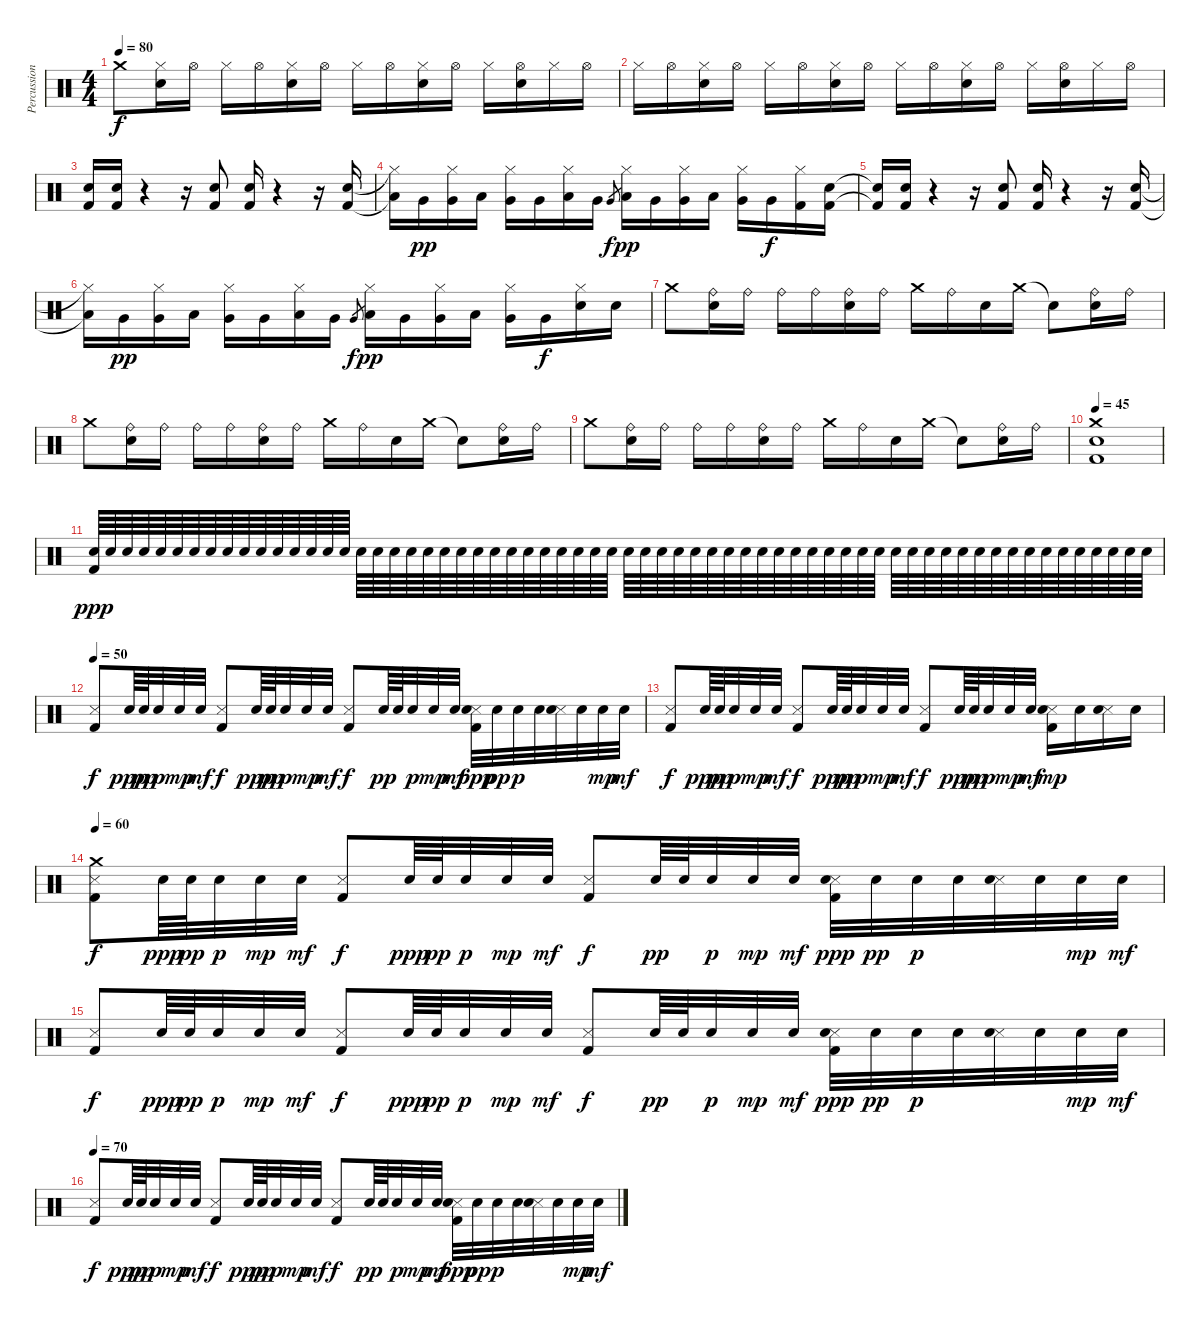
\track ("Percussions" "Percussion") {instrument percussion}
\staff {score}
\articulation defaults
\ts (4 4)
\tempo 80
\clef neutral
\ks c "Crash medium (hit)".8{dy f}
("Snare (hit) 2" "Hi-Hat (closed)").16 "Hi-Hat (open)".16 "Hi-Hat (closed)".16 "Hi-Hat (open)".16 ("Snare (hit) 2" "Hi-Hat (closed)").16 "Hi-Hat (open)".16 "Hi-Hat (closed)".16 "Hi-Hat (open)".16 ("Snare (hit) 2" "Hi-Hat (closed)").16 "Hi-Hat (open)".16 "Hi-Hat (closed)".16 ("Snare (hit) 2" "Hi-Hat (open)").16 "Hi-Hat (closed)".16 "Hi-Hat (open)".16 |
"Hi-Hat (closed)".16 "Hi-Hat (open)".16 ("Snare (hit) 2" "Hi-Hat (closed)").16 "Hi-Hat (open)".16 "Hi-Hat (closed)".16 "Hi-Hat (open)".16 ("Snare (hit) 2" "Hi-Hat (closed)").16 "Hi-Hat (open)".16 "Hi-Hat (closed)".16 "Hi-Hat (open)".16 ("Snare (hit) 2" "Hi-Hat (closed)").16 "Hi-Hat (open)".16 "Hi-Hat (closed)".16 ("Snare (hit) 2" "Hi-Hat (open)").16 "Hi-Hat (closed)".16 "Hi-Hat (open)".16 |
("Snare (hit) 2" "Kick (hit) 2").16 ("Snare (hit) 2" "Kick (hit) 2").16 r.4 r.16 ("Snare (hit) 2" "Kick (hit) 2").8 ("Kick (hit) 2" "Snare (hit) 2").16 r.4 r.16 ("Snare (hit) 2" "Kick (hit) 2").16 |
("Hi-Hat (closed)"{t} "Low Tom (hit)"{t}).16 "Very Low Tom (hit)".16{dy pp} ("Hi-Hat (closed)" "Very Low Tom (hit)").16 "Low Tom (hit)".16 ("Hi-Hat (closed)" "Very Low Tom (hit)").16 "Very Low Tom (hit)".16 ("Hi-Hat (closed)" "Low Tom (hit)").16 "Very Low Tom (hit)".16 "Very Low Tom (hit)".8{gr dy f} ("Hi-Hat (closed)" "Low Tom (hit)").16{dy pp} "Very Low Tom (hit)".16 ("Hi-Hat (closed)" "Very Low Tom (hit)").16 "Low Tom (hit)".16 ("Hi-Hat (closed)" "Very Low Tom (hit)").16 "Very Low Tom (hit)".16{dy f} ("Hi-Hat (closed)" "Kick (hit) 2").16 ("Snare (hit) 2" "Kick (hit) 2").16 |
("Snare (hit) 2"{t} "Kick (hit) 2"{t}).16 ("Snare (hit) 2" "Kick (hit) 2").16 r.4 r.16 ("Snare (hit) 2" "Kick (hit) 2").8 ("Kick (hit) 2" "Snare (hit) 2").16 r.4 r.16 ("Snare (hit) 2" "Kick (hit) 2").16 |
("Hi-Hat (closed)"{t} "Low Tom (hit)"{t}).16 "Very Low Tom (hit)".16{dy pp} ("Hi-Hat (closed)" "Very Low Tom (hit)").16 "Low Tom (hit)".16 ("Hi-Hat (closed)" "Very Low Tom (hit)").16 "Very Low Tom (hit)".16 ("Hi-Hat (closed)" "Low Tom (hit)").16 "Very Low Tom (hit)".16 "Very Low Tom (hit)".8{gr dy f} ("Hi-Hat (closed)" "Low Tom (hit)").16{dy pp} "Very Low Tom (hit)".16 ("Hi-Hat (closed)" "Very Low Tom (hit)").16 "Low Tom (hit)".16 ("Hi-Hat (closed)" "Very Low Tom (hit)").16 "Very Low Tom (hit)".16{dy f} ("Hi-Hat (closed)" "Snare (hit) 2").16 "Snare (hit) 2".16 |
"Crash medium (hit)".8 ("Snare (hit) 2" "Ride (bell)").16 "Ride (bell)".16 "Ride (bell)".16 "Ride (bell)".16 ("Snare (hit) 2" "Ride (bell)").16 "Ride (bell)".16 "Crash medium (hit)".16 "Ride (bell)".16 "Snare (hit) 2".16 "Crash medium (hit)".16 "Snare (hit)"{t}.8 ("Snare (hit) 2" "Ride (bell)").16 "Ride (bell)".16 |
"Crash medium (hit)".8 ("Snare (hit) 2" "Ride (bell)").16 "Ride (bell)".16 "Ride (bell)".16 "Ride (bell)".16 ("Snare (hit) 2" "Ride (bell)").16 "Ride (bell)".16 "Crash medium (hit)".16 "Ride (bell)".16 "Snare (hit) 2".16 "Crash medium (hit)".16 "Snare (hit)"{t}.8 ("Snare (hit) 2" "Ride (bell)").16 "Ride (bell)".16 |
"Crash medium (hit)".8 ("Snare (hit) 2" "Ride (bell)").16 "Ride (bell)".16 "Ride (bell)".16 "Ride (bell)".16 ("Snare (hit) 2" "Ride (bell)").16 "Ride (bell)".16 "Crash medium (hit)".16 "Ride (bell)".16 "Snare (hit) 2".16 "Crash medium (hit)".16 "Snare (hit)"{t}.8 ("Snare (hit) 2" "Ride (bell)").16 "Ride (bell)".16 |
\tempo 45
("Crash medium (hit)" "Snare (hit) 2" "Kick (hit) 2").1 |
("Kick (hit) 2" "Snare (hit) 2").64{dy ppp} "Snare (hit) 2".64 "Snare (hit) 2".64 "Snare (hit) 2".64 "Snare (hit) 2".64 "Snare (hit) 2".64 "Snare (hit) 2".64 "Snare (hit) 2".64 "Snare (hit) 2".64 "Snare (hit) 2".64 "Snare (hit) 2".64 "Snare (hit) 2".64 "Snare (hit) 2".64 "Snare (hit) 2".64 "Snare (hit) 2".64 "Snare (hit) 2".64 "Snare (hit) 2".64 "Snare (hit) 2".64 "Snare (hit) 2".64 "Snare (hit) 2".64 "Snare (hit) 2".64 "Snare (hit) 2".64 "Snare (hit) 2".64 "Snare (hit) 2".64 "Snare (hit) 2".64 "Snare (hit) 2".64 "Snare (hit) 2".64 "Snare (hit) 2".64 "Snare (hit) 2".64 "Snare (hit) 2".64 "Snare (hit) 2".64 "Snare (hit) 2".64 "Snare (hit) 2".64 "Snare (hit) 2".64 "Snare (hit) 2".64 "Snare (hit) 2".64 "Snare (hit) 2".64 "Snare (hit) 2".64 "Snare (hit) 2".64 "Snare (hit) 2".64 "Snare (hit) 2".64 "Snare (hit) 2".64 "Snare (hit) 2".64 "Snare (hit) 2".64 "Snare (hit) 2".64 "Snare (hit) 2".64 "Snare (hit) 2".64 "Snare (hit) 2".64 "Snare (hit) 2".64 "Snare (hit) 2".64 "Snare (hit) 2".64 "Snare (hit) 2".64 "Snare (hit) 2".64 "Snare (hit) 2".64 "Snare (hit) 2".64 "Snare (hit) 2".64 "Snare (hit) 2".64 "Snare (hit) 2".64 "Snare (hit) 2".64 "Snare (hit) 2".64 "Snare (hit) 2".64 "Snare (hit) 2".64 "Snare (hit) 2".64 "Snare (hit) 2".64 |
\tempo 50
("Snare (side stick) 3" "Kick (hit) 2").8{dy f} "Snare (hit) 2".64{dy ppp} "Snare (hit) 2".64{dy pp} "Snare (hit) 2".32{dy p} "Snare (hit) 2".32{dy mp} "Snare (hit) 2".32{dy mf} ("Snare (side stick) 3" "Kick (hit) 2").8{dy f} "Snare (hit) 2".64{dy ppp} "Snare (hit) 2".64{dy pp} "Snare (hit) 2".32{dy p} "Snare (hit) 2".32{dy mp} "Snare (hit) 2".32{dy mf} ("Snare (side stick) 3" "Kick (hit) 2").8{dy f} "Snare (hit) 2".64{dy pp} "Snare (hit) 2".64 "Snare (hit) 2".32{dy p} "Snare (hit) 2".32{dy mp} "Snare (hit) 2".32{dy mf} ("Snare (side stick) 3" "Snare (hit) 2" "Kick (hit) 2").32{dy ppp} "Snare (hit) 2".32{dy pp} "Snare (hit) 2".32{dy p} "Snare (hit) 2".32 ("Snare (side stick) 3" "Snare (hit) 2").32 "Snare (hit) 2".32 "Snare (hit) 2".32{dy mp} "Snare (hit) 2".32{dy mf} |
("Snare (side stick) 3" "Kick (hit) 2").8{dy f} "Snare (hit) 2".64{dy ppp} "Snare (hit) 2".64{dy pp} "Snare (hit) 2".32{dy p} "Snare (hit) 2".32{dy mp} "Snare (hit) 2".32{dy mf} ("Snare (side stick) 3" "Kick (hit) 2").8{dy f} "Snare (hit) 2".64{dy ppp} "Snare (hit) 2".64{dy pp} "Snare (hit) 2".32{dy p} "Snare (hit) 2".32{dy mp} "Snare (hit) 2".32{dy mf} ("Snare (side stick) 3" "Kick (hit) 2").8{dy f} "Snare (hit) 2".64{dy ppp} "Snare (hit) 2".64{dy pp} "Snare (hit) 2".32{dy p} "Snare (hit) 2".32{dy mp} "Snare (hit) 2".32{dy mf} ("Snare (side stick) 3" "Snare (hit) 2" "Kick (hit) 2").16{dy mp} "Snare (hit) 2".16 ("Snare (side stick) 3" "Snare (hit) 2").16 "Snare (hit) 2".16 |
\tempo 60
("Crash medium (hit)" "Snare (side stick) 3" "Kick (hit) 2").8{dy f} "Snare (hit) 2".64{dy ppp} "Snare (hit) 2".64{dy pp} "Snare (hit) 2".32{dy p} "Snare (hit) 2".32{dy mp} "Snare (hit) 2".32{dy mf} ("Snare (side stick) 3" "Kick (hit) 2").8{dy f} "Snare (hit) 2".64{dy ppp} "Snare (hit) 2".64{dy pp} "Snare (hit) 2".32{dy p} "Snare (hit) 2".32{dy mp} "Snare (hit) 2".32{dy mf} ("Snare (side stick) 3" "Kick (hit) 2").8{dy f} "Snare (hit) 2".64{dy pp} "Snare (hit) 2".64 "Snare (hit) 2".32{dy p} "Snare (hit) 2".32{dy mp} "Snare (hit) 2".32{dy mf} ("Snare (side stick) 3" "Snare (hit) 2" "Kick (hit) 2").32{dy ppp} "Snare (hit) 2".32{dy pp} "Snare (hit) 2".32{dy p} "Snare (hit) 2".32 ("Snare (side stick) 3" "Snare (hit) 2").32 "Snare (hit) 2".32 "Snare (hit) 2".32{dy mp} "Snare (hit) 2".32{dy mf} |
("Snare (side stick) 3" "Kick (hit) 2").8{dy f} "Snare (hit) 2".64{dy ppp} "Snare (hit) 2".64{dy pp} "Snare (hit) 2".32{dy p} "Snare (hit) 2".32{dy mp} "Snare (hit) 2".32{dy mf} ("Snare (side stick) 3" "Kick (hit) 2").8{dy f} "Snare (hit) 2".64{dy ppp} "Snare (hit) 2".64{dy pp} "Snare (hit) 2".32{dy p} "Snare (hit) 2".32{dy mp} "Snare (hit) 2".32{dy mf} ("Snare (side stick) 3" "Kick (hit) 2").8{dy f} "Snare (hit) 2".64{dy pp} "Snare (hit) 2".64 "Snare (hit) 2".32{dy p} "Snare (hit) 2".32{dy mp} "Snare (hit) 2".32{dy mf} ("Snare (side stick) 3" "Snare (hit) 2" "Kick (hit) 2").32{dy ppp} "Snare (hit) 2".32{dy pp} "Snare (hit) 2".32{dy p} "Snare (hit) 2".32 ("Snare (side stick) 3" "Snare (hit) 2").32 "Snare (hit) 2".32 "Snare (hit) 2".32{dy mp} "Snare (hit) 2".32{dy mf} |
\tempo 70
("Snare (side stick) 3" "Kick (hit) 2").8{dy f} "Snare (hit) 2".64{dy ppp} "Snare (hit) 2".64{dy pp} "Snare (hit) 2".32{dy p} "Snare (hit) 2".32{dy mp} "Snare (hit) 2".32{dy mf} ("Snare (side stick) 3" "Kick (hit) 2").8{dy f} "Snare (hit) 2".64{dy ppp} "Snare (hit) 2".64{dy pp} "Snare (hit) 2".32{dy p} "Snare (hit) 2".32{dy mp} "Snare (hit) 2".32{dy mf} ("Snare (side stick) 3" "Kick (hit) 2").8{dy f} "Snare (hit) 2".64{dy pp} "Snare (hit) 2".64 "Snare (hit) 2".32{dy p} "Snare (hit) 2".32{dy mp} "Snare (hit) 2".32{dy mf} ("Snare (side stick) 3" "Snare (hit) 2" "Kick (hit) 2").32{dy ppp} "Snare (hit) 2".32{dy pp} "Snare (hit) 2".32{dy p} "Snare (hit) 2".32 ("Snare (side stick) 3" "Snare (hit) 2").32 "Snare (hit) 2".32 "Snare (hit) 2".32{dy mp} "Snare (hit) 2".32{dy mf}
